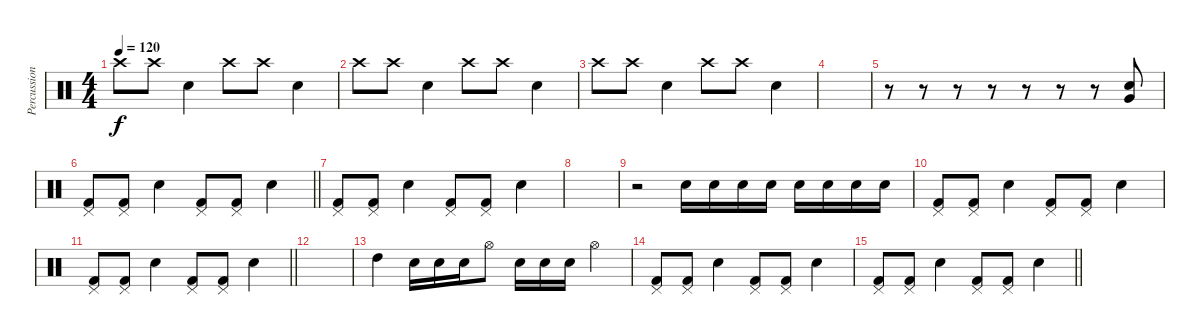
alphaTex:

\track ("Percussion" "Percussion") {instrument percussion}
\staff {score}
\articulation defaults
\ts (4 4)
\tempo 120
\clef neutral
\ks c "Crash high (hit)".8{dy f} "Crash high (hit)".8 "Electric Snare (hit)".4 "Crash high (hit)".8 "Crash high (hit)".8 "Electric Snare (hit)".4
|
"Crash high (hit)".8 "Crash high (hit)".8 "Electric Snare (hit)".4 "Crash high (hit)".8 "Crash high (hit)".8 "Electric Snare (hit)".4 |
"Crash high (hit)".8 "Crash high (hit)".8 "Electric Snare (hit)".4 "Crash high (hit)".8 "Crash high (hit)".8 "Electric Snare (hit)".4 |
|
r.8 r.8 r.8 r.8 r.8 r.8 r.8 ("Very Low Tom (hit)" "Electric Snare (hit)").8 |
\barLineRight lightlight
("Kick (hit) 2" "Pedal Hi-Hat (hit)").8 ("Kick (hit) 2" "Pedal Hi-Hat (hit)").8 "Electric Snare (hit)".4 ("Kick (hit) 2" "Pedal Hi-Hat (hit)").8 ("Kick (hit) 2" "Pedal Hi-Hat (hit)").8 "Electric Snare (hit)".4 |
("Kick (hit) 2" "Pedal Hi-Hat (hit)").8 ("Kick (hit) 2" "Pedal Hi-Hat (hit)").8 "Electric Snare (hit)".4 ("Kick (hit) 2" "Pedal Hi-Hat (hit)").8 ("Kick (hit) 2" "Pedal Hi-Hat (hit)").8 "Electric Snare (hit)".4 |
|
r.2 "Electric Snare (hit)".16 "Electric Snare (hit)".16 "Electric Snare (hit)".16 "Electric Snare (hit)".16 "Electric Snare (hit)".16 "Electric Snare (hit)".16 "Electric Snare (hit)".16 "Electric Snare (hit)".16 |
("Kick (hit) 2" "Pedal Hi-Hat (hit)").8 ("Kick (hit) 2" "Pedal Hi-Hat (hit)").8 "Electric Snare (hit)".4 ("Kick (hit) 2" "Pedal Hi-Hat (hit)").8 ("Kick (hit) 2" "Pedal Hi-Hat (hit)").8 "Electric Snare (hit)".4 |
\barLineRight lightlight
("Kick (hit) 2" "Pedal Hi-Hat (hit)").8 ("Kick (hit) 2" "Pedal Hi-Hat (hit)").8 "Electric Snare (hit)".4 ("Kick (hit) 2" "Pedal Hi-Hat (hit)").8 ("Kick (hit) 2" "Pedal Hi-Hat (hit)").8 "Electric Snare (hit)".4 |
|
"High Tom (hit)".4 "Electric Snare (hit)".16 "Electric Snare (hit)".16 "Electric Snare (hit)".16 "Hi-Hat (open)".8 "Electric Snare (hit)".16 "Electric Snare (hit)".16 "Electric Snare (hit)".16 "Hi-Hat (open)".4 |
("Kick (hit) 2" "Pedal Hi-Hat (hit)").8 ("Kick (hit) 2" "Pedal Hi-Hat (hit)").8 "Electric Snare (hit)".4 ("Kick (hit) 2" "Pedal Hi-Hat (hit)").8 ("Kick (hit) 2" "Pedal Hi-Hat (hit)").8 "Electric Snare (hit)".4 |
\barLineRight lightlight
("Kick (hit) 2" "Pedal Hi-Hat (hit)").8 ("Kick (hit) 2" "Pedal Hi-Hat (hit)").8 "Electric Snare (hit)".4 ("Kick (hit) 2" "Pedal Hi-Hat (hit)").8 ("Kick (hit) 2" "Pedal Hi-Hat (hit)").8 "Electric Snare (hit)".4
